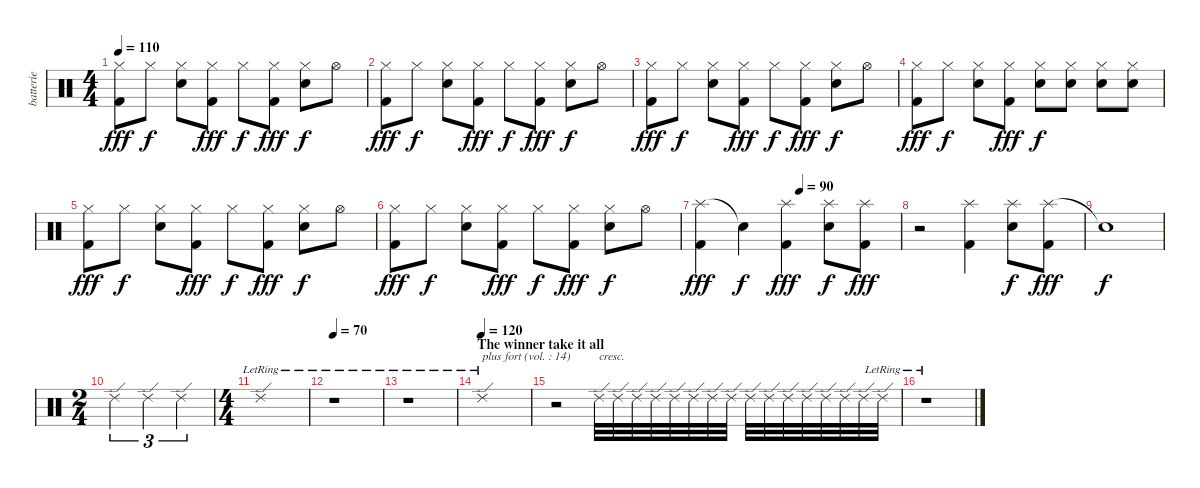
\track ("batterie" "batterie") {instrument percussion}
\staff {score}
\articulation defaults
\ts (4 4)
\tempo 110
\clef neutral
\ks c
("Hi-Hat (closed)" "Kick (hit) 2").8{dy fff} "Hi-Hat (closed)".8{dy f} ("Hi-Hat (closed)" "Electric Snare (hit)").8 ("Hi-Hat (closed)" "Kick (hit) 2").8{dy fff} "Hi-Hat (closed)".8{dy f} ("Hi-Hat (closed)" "Kick (hit) 2").8{dy fff} ("Hi-Hat (closed)" "Electric Snare (hit)").8{dy f} "Hi-Hat (open)".8 |
("Hi-Hat (closed)" "Kick (hit) 2").8{dy fff} "Hi-Hat (closed)".8{dy f} ("Hi-Hat (closed)" "Electric Snare (hit)").8 ("Hi-Hat (closed)" "Kick (hit) 2").8{dy fff} "Hi-Hat (closed)".8{dy f} ("Hi-Hat (closed)" "Kick (hit) 2").8{dy fff} ("Hi-Hat (closed)" "Electric Snare (hit)").8{dy f} "Hi-Hat (open)".8 |
("Hi-Hat (closed)" "Kick (hit) 2").8{dy fff} "Hi-Hat (closed)".8{dy f} ("Hi-Hat (closed)" "Electric Snare (hit)").8 ("Hi-Hat (closed)" "Kick (hit) 2").8{dy fff} "Hi-Hat (closed)".8{dy f} ("Hi-Hat (closed)" "Kick (hit) 2").8{dy fff} ("Hi-Hat (closed)" "Electric Snare (hit)").8{dy f} "Hi-Hat (open)".8 |
("Hi-Hat (closed)" "Kick (hit) 2").8{dy fff} "Hi-Hat (closed)".8{dy f} ("Hi-Hat (closed)" "Electric Snare (hit)").8 ("Hi-Hat (closed)" "Kick (hit) 2").8{dy fff} ("Hi-Hat (closed)" "Electric Snare (hit)").8{dy f} ("Hi-Hat (closed)" "Electric Snare (hit)").8 ("Hi-Hat (closed)" "Electric Snare (hit)").8 ("Hi-Hat (closed)" "Electric Snare (hit)").8 |
("Hi-Hat (closed)" "Kick (hit) 2").8{dy fff} "Hi-Hat (closed)".8{dy f} ("Hi-Hat (closed)" "Electric Snare (hit)").8 ("Hi-Hat (closed)" "Kick (hit) 2").8{dy fff} "Hi-Hat (closed)".8{dy f} ("Hi-Hat (closed)" "Kick (hit) 2").8{dy fff} ("Hi-Hat (closed)" "Electric Snare (hit)").8{dy f} "Hi-Hat (open)".8 |
("Hi-Hat (closed)" "Kick (hit) 2").8{dy fff} "Hi-Hat (closed)".8{dy f} ("Hi-Hat (closed)" "Electric Snare (hit)").8 ("Hi-Hat (closed)" "Kick (hit) 2").8{dy fff} "Hi-Hat (closed)".8{dy f} ("Hi-Hat (closed)" "Kick (hit) 2").8{dy fff} ("Hi-Hat (closed)" "Electric Snare (hit)").8{dy f} "Hi-Hat (open)".8 |
\tempo (90 0.5)
("Splash (hit)" "Kick (hit) 2").4{dy fff} "Snare (hit)"{t}.4{dy f} ("Splash (hit)" "Kick (hit) 2").4{dy fff} ("Splash (hit)" "Electric Snare (hit)").8{dy f} ("Splash (hit)" "Kick (hit) 2").8{dy fff} |
r.2 ("Splash (hit)" "Kick (hit) 2").4 ("Splash (hit)" "Electric Snare (hit)").8{dy f} ("Splash (hit)" "Kick (hit) 2").8{dy fff} |
"Snare (hit)"{t}.1{dy f} |
\ts (2 4)
"Ride (edge) 2".4{tu (3 2)} "Ride (edge) 2".4{tu (3 2)} "Ride (edge) 2".4{tu (3 2)} |
\ts (4 4)
"Ride (edge) 2"{lr}.1 |
\tempo 70
r.1 |
r.1 |
\section ("" "The winner take it all")
\tempo (120)
"Ride (edge) 2"{lr}.1{txt "plus fort (vol. : 14)" volume 14} |
r.2{volume 10} "Ride (edge) 2".32{txt "cresc." volume 16} "Ride (edge) 2".32 "Ride (edge) 2".32 "Ride (edge) 2".32 "Ride (edge) 2".32 "Ride (edge) 2".32 "Ride (edge) 2".32 "Ride (edge) 2".32 "Ride (edge) 2".32 "Ride (edge) 2".32 "Ride (edge) 2".32 "Ride (edge) 2".32 "Ride (edge) 2".32 "Ride (edge) 2".32 "Ride (edge) 2".32 "Ride (edge) 2"{lr}.32 |
r.1
